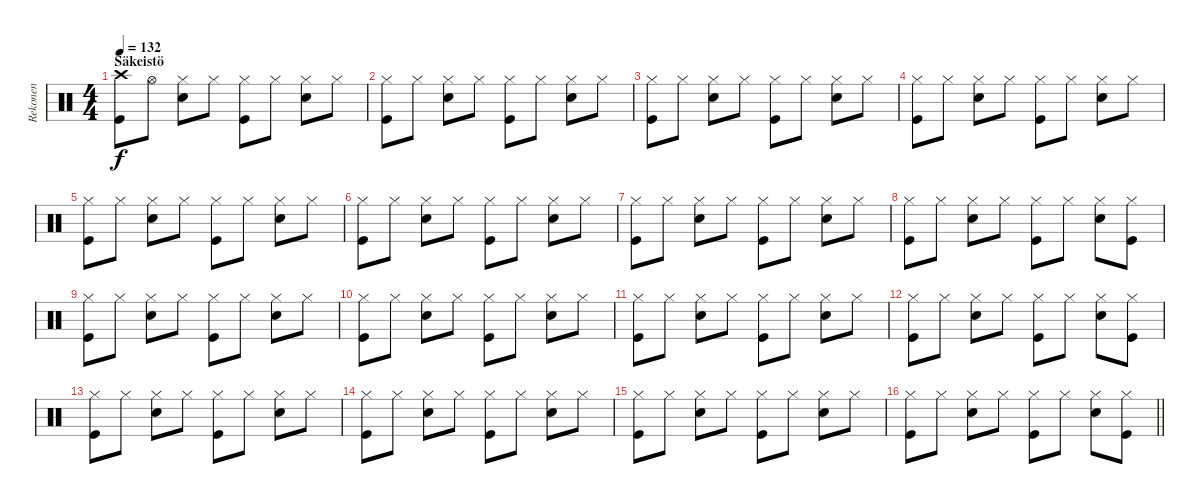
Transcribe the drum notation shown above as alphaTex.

\track ("Rekonen" "Rekonen") {instrument percussion}
\staff {score}
\articulation defaults
\ts (4 4)
\section ("" "Säkeistö")
\tempo 132
\clef neutral
\ks c
("Kick (hit)" "Crash high (hit)").8{dy f} "Hi-Hat (open)".8 ("Electric Snare (hit)" "Hi-Hat (closed)").8 "Hi-Hat (closed)".8 ("Kick (hit)" "Hi-Hat (closed)").8 "Hi-Hat (closed)".8 ("Electric Snare (hit)" "Hi-Hat (closed)").8 "Hi-Hat (closed)".8 |
("Kick (hit)" "Hi-Hat (closed)").8 "Hi-Hat (closed)".8 ("Electric Snare (hit)" "Hi-Hat (closed)").8 "Hi-Hat (closed)".8 ("Kick (hit)" "Hi-Hat (closed)").8 "Hi-Hat (closed)".8 ("Electric Snare (hit)" "Hi-Hat (closed)").8 "Hi-Hat (closed)".8 |
("Kick (hit)" "Hi-Hat (closed)").8 "Hi-Hat (closed)".8 ("Electric Snare (hit)" "Hi-Hat (closed)").8 "Hi-Hat (closed)".8 ("Kick (hit)" "Hi-Hat (closed)").8 "Hi-Hat (closed)".8 ("Electric Snare (hit)" "Hi-Hat (closed)").8 "Hi-Hat (closed)".8 |
("Kick (hit)" "Hi-Hat (closed)").8 "Hi-Hat (closed)".8 ("Electric Snare (hit)" "Hi-Hat (closed)").8 "Hi-Hat (closed)".8 ("Kick (hit)" "Hi-Hat (closed)").8 "Hi-Hat (closed)".8 ("Electric Snare (hit)" "Hi-Hat (closed)").8 "Hi-Hat (closed)".8 |
("Kick (hit)" "Hi-Hat (closed)").8 "Hi-Hat (closed)".8 ("Electric Snare (hit)" "Hi-Hat (closed)").8 "Hi-Hat (closed)".8 ("Kick (hit)" "Hi-Hat (closed)").8 "Hi-Hat (closed)".8 ("Electric Snare (hit)" "Hi-Hat (closed)").8 "Hi-Hat (closed)".8 |
("Kick (hit)" "Hi-Hat (closed)").8 "Hi-Hat (closed)".8 ("Electric Snare (hit)" "Hi-Hat (closed)").8 "Hi-Hat (closed)".8 ("Kick (hit)" "Hi-Hat (closed)").8 "Hi-Hat (closed)".8 ("Electric Snare (hit)" "Hi-Hat (closed)").8 "Hi-Hat (closed)".8 |
("Kick (hit)" "Hi-Hat (closed)").8 "Hi-Hat (closed)".8 ("Electric Snare (hit)" "Hi-Hat (closed)").8 "Hi-Hat (closed)".8 ("Kick (hit)" "Hi-Hat (closed)").8 "Hi-Hat (closed)".8 ("Electric Snare (hit)" "Hi-Hat (closed)").8 "Hi-Hat (closed)".8 |
("Kick (hit)" "Hi-Hat (closed)").8 "Hi-Hat (closed)".8 ("Electric Snare (hit)" "Hi-Hat (closed)").8 "Hi-Hat (closed)".8 ("Kick (hit)" "Hi-Hat (closed)").8 "Hi-Hat (closed)".8 ("Electric Snare (hit)" "Hi-Hat (closed)").8 ("Kick (hit)" "Hi-Hat (closed)").8 |
("Kick (hit)" "Hi-Hat (closed)").8 "Hi-Hat (closed)".8 ("Electric Snare (hit)" "Hi-Hat (closed)").8 "Hi-Hat (closed)".8 ("Kick (hit)" "Hi-Hat (closed)").8 "Hi-Hat (closed)".8 ("Electric Snare (hit)" "Hi-Hat (closed)").8 "Hi-Hat (closed)".8 |
("Kick (hit)" "Hi-Hat (closed)").8 "Hi-Hat (closed)".8 ("Electric Snare (hit)" "Hi-Hat (closed)").8 "Hi-Hat (closed)".8 ("Kick (hit)" "Hi-Hat (closed)").8 "Hi-Hat (closed)".8 ("Electric Snare (hit)" "Hi-Hat (closed)").8 "Hi-Hat (closed)".8 |
("Kick (hit)" "Hi-Hat (closed)").8 "Hi-Hat (closed)".8 ("Electric Snare (hit)" "Hi-Hat (closed)").8 "Hi-Hat (closed)".8 ("Kick (hit)" "Hi-Hat (closed)").8 "Hi-Hat (closed)".8 ("Electric Snare (hit)" "Hi-Hat (closed)").8 "Hi-Hat (closed)".8 |
("Kick (hit)" "Hi-Hat (closed)").8 "Hi-Hat (closed)".8 ("Electric Snare (hit)" "Hi-Hat (closed)").8 "Hi-Hat (closed)".8 ("Kick (hit)" "Hi-Hat (closed)").8 "Hi-Hat (closed)".8 ("Electric Snare (hit)" "Hi-Hat (closed)").8 ("Kick (hit)" "Hi-Hat (closed)").8 |
("Kick (hit)" "Hi-Hat (closed)").8 "Hi-Hat (closed)".8 ("Electric Snare (hit)" "Hi-Hat (closed)").8 "Hi-Hat (closed)".8 ("Kick (hit)" "Hi-Hat (closed)").8 "Hi-Hat (closed)".8 ("Electric Snare (hit)" "Hi-Hat (closed)").8 "Hi-Hat (closed)".8 |
("Kick (hit)" "Hi-Hat (closed)").8 "Hi-Hat (closed)".8 ("Electric Snare (hit)" "Hi-Hat (closed)").8 "Hi-Hat (closed)".8 ("Kick (hit)" "Hi-Hat (closed)").8 "Hi-Hat (closed)".8 ("Electric Snare (hit)" "Hi-Hat (closed)").8 "Hi-Hat (closed)".8 |
("Kick (hit)" "Hi-Hat (closed)").8 "Hi-Hat (closed)".8 ("Electric Snare (hit)" "Hi-Hat (closed)").8 "Hi-Hat (closed)".8 ("Kick (hit)" "Hi-Hat (closed)").8 "Hi-Hat (closed)".8 ("Electric Snare (hit)" "Hi-Hat (closed)").8 "Hi-Hat (closed)".8 |
\barLineRight lightlight
("Kick (hit)" "Hi-Hat (closed)").8 "Hi-Hat (closed)".8 ("Electric Snare (hit)" "Hi-Hat (closed)").8 "Hi-Hat (closed)".8 ("Kick (hit)" "Hi-Hat (closed)").8 "Hi-Hat (closed)".8 ("Electric Snare (hit)" "Hi-Hat (closed)").8 ("Kick (hit)" "Hi-Hat (closed)").8
